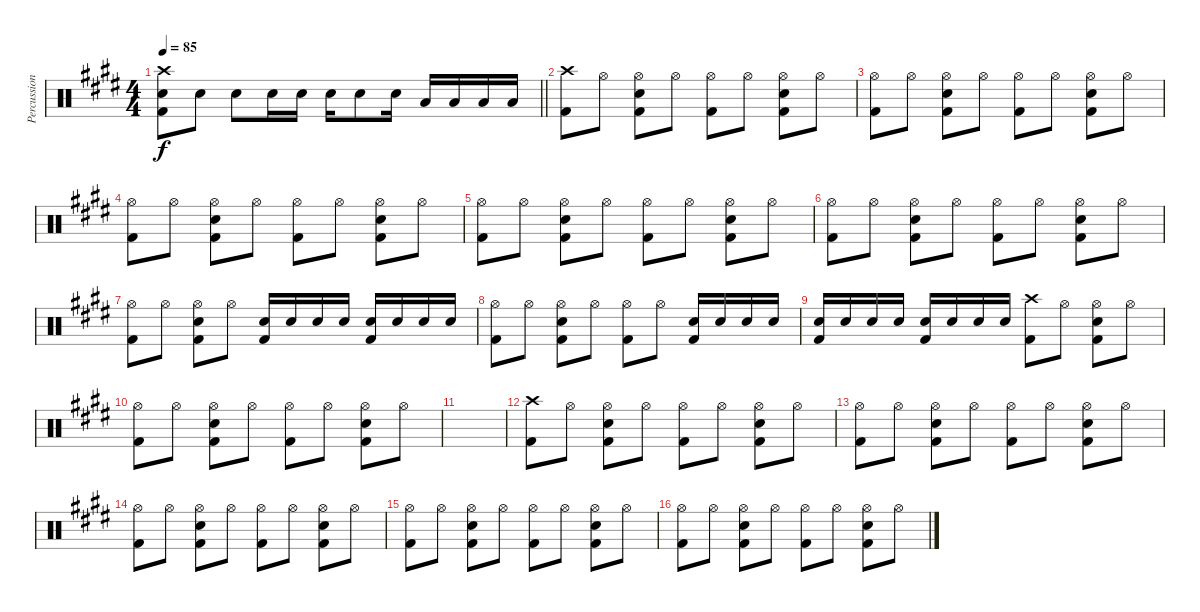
\track ("Percussion" "Percussion") {instrument percussion}
\staff {score}
\articulation defaults
\ts (4 4)
\tempo 85
\clef neutral
\barLineRight lightlight
\ks e
("Crash high (hit)" "Snare (hit) 2" "Kick (hit) 2").8{dy f} "Snare (hit) 2".8 "Snare (hit) 2".8 "Snare (hit) 2".16 "Snare (hit) 2".16 "Snare (hit) 2".16 "Snare (hit) 2".8 "Snare (hit) 2".16 "Low Floor Tom (hit)".16 "Low Floor Tom (hit)".16 "Low Floor Tom (hit)".16 "Low Floor Tom (hit)".16 |
("Crash high (hit)" "Kick (hit) 2").8 "Hi-Hat (open)".8 ("Hi-Hat (open)" "Kick (hit) 2" "Snare (hit) 2").8 "Hi-Hat (open)".8 ("Hi-Hat (open)" "Kick (hit) 2").8 "Hi-Hat (open)".8 ("Hi-Hat (open)" "Kick (hit) 2" "Snare (hit) 2").8 "Hi-Hat (open)".8 |
("Hi-Hat (open)" "Kick (hit) 2").8 "Hi-Hat (open)".8 ("Hi-Hat (open)" "Kick (hit) 2" "Snare (hit) 2").8 "Hi-Hat (open)".8 ("Hi-Hat (open)" "Kick (hit) 2").8 "Hi-Hat (open)".8 ("Hi-Hat (open)" "Kick (hit) 2" "Snare (hit) 2").8 "Hi-Hat (open)".8 |
("Hi-Hat (open)" "Kick (hit) 2").8 "Hi-Hat (open)".8 ("Hi-Hat (open)" "Kick (hit) 2" "Snare (hit) 2").8 "Hi-Hat (open)".8 ("Hi-Hat (open)" "Kick (hit) 2").8 "Hi-Hat (open)".8 ("Hi-Hat (open)" "Kick (hit) 2" "Snare (hit) 2").8 "Hi-Hat (open)".8 |
("Hi-Hat (open)" "Kick (hit) 2").8 "Hi-Hat (open)".8 ("Hi-Hat (open)" "Kick (hit) 2" "Snare (hit) 2").8 "Hi-Hat (open)".8 ("Hi-Hat (open)" "Kick (hit) 2").8 "Hi-Hat (open)".8 ("Hi-Hat (open)" "Kick (hit) 2" "Snare (hit) 2").8 "Hi-Hat (open)".8 |
("Hi-Hat (open)" "Kick (hit) 2").8 "Hi-Hat (open)".8 ("Hi-Hat (open)" "Kick (hit) 2" "Snare (hit) 2").8 "Hi-Hat (open)".8 ("Hi-Hat (open)" "Kick (hit) 2").8 "Hi-Hat (open)".8 ("Hi-Hat (open)" "Kick (hit) 2" "Snare (hit) 2").8 "Hi-Hat (open)".8 |
("Hi-Hat (open)" "Kick (hit) 2").8 "Hi-Hat (open)".8 ("Hi-Hat (open)" "Snare (hit) 2" "Kick (hit) 2").8 "Hi-Hat (open)".8 ("Snare (hit) 2" "Kick (hit) 2").16 "Snare (hit) 2".16 "Snare (hit) 2".16 "Snare (hit) 2".16 ("Snare (hit) 2" "Kick (hit) 2").16 "Snare (hit) 2".16 "Snare (hit) 2".16 "Snare (hit) 2".16 |
("Hi-Hat (open)" "Kick (hit) 2").8 "Hi-Hat (open)".8 ("Hi-Hat (open)" "Kick (hit) 2" "Snare (hit) 2").8 "Hi-Hat (open)".8 ("Hi-Hat (open)" "Kick (hit) 2").8 "Hi-Hat (open)".8 ("Snare (hit) 2" "Kick (hit) 2").16 "Snare (hit) 2".16 "Snare (hit) 2".16 "Snare (hit) 2".16 |
("Snare (hit) 2" "Kick (hit) 2").16{volume 0} "Snare (hit) 2".16 "Snare (hit) 2".16 "Snare (hit) 2".16 ("Snare (hit) 2" "Kick (hit) 2").16 "Snare (hit) 2".16 "Snare (hit) 2".16 "Snare (hit) 2".16 ("Crash high (hit)" "Kick (hit) 2").8 "Hi-Hat (open)".8 ("Hi-Hat (open)" "Kick (hit) 2" "Snare (hit) 2").8 "Hi-Hat (open)".8 |
("Hi-Hat (open)" "Kick (hit) 2").8 "Hi-Hat (open)".8 ("Hi-Hat (open)" "Kick (hit) 2" "Snare (hit) 2").8 "Hi-Hat (open)".8 ("Hi-Hat (open)" "Kick (hit) 2").8 "Hi-Hat (open)".8 ("Hi-Hat (open)" "Kick (hit) 2" "Snare (hit) 2").8 "Hi-Hat (open)".8 |
|
("Crash high (hit)" "Kick (hit) 2").8{volume 14} "Hi-Hat (open)".8 ("Hi-Hat (open)" "Kick (hit) 2" "Snare (hit) 2").8 "Hi-Hat (open)".8 ("Hi-Hat (open)" "Kick (hit) 2").8 "Hi-Hat (open)".8 ("Hi-Hat (open)" "Kick (hit) 2" "Snare (hit) 2").8 "Hi-Hat (open)".8 |
("Hi-Hat (open)" "Kick (hit) 2").8 "Hi-Hat (open)".8 ("Hi-Hat (open)" "Kick (hit) 2" "Snare (hit) 2").8 "Hi-Hat (open)".8 ("Hi-Hat (open)" "Kick (hit) 2").8 "Hi-Hat (open)".8 ("Hi-Hat (open)" "Kick (hit) 2" "Snare (hit) 2").8 "Hi-Hat (open)".8 |
("Hi-Hat (open)" "Kick (hit) 2").8 "Hi-Hat (open)".8 ("Hi-Hat (open)" "Kick (hit) 2" "Snare (hit) 2").8 "Hi-Hat (open)".8 ("Hi-Hat (open)" "Kick (hit) 2").8 "Hi-Hat (open)".8 ("Hi-Hat (open)" "Kick (hit) 2" "Snare (hit) 2").8 "Hi-Hat (open)".8 |
("Hi-Hat (open)" "Kick (hit) 2").8 "Hi-Hat (open)".8 ("Hi-Hat (open)" "Kick (hit) 2" "Snare (hit) 2").8 "Hi-Hat (open)".8 ("Hi-Hat (open)" "Kick (hit) 2").8 "Hi-Hat (open)".8 ("Hi-Hat (open)" "Kick (hit) 2" "Snare (hit) 2").8 "Hi-Hat (open)".8 |
("Hi-Hat (open)" "Kick (hit) 2").8 "Hi-Hat (open)".8 ("Hi-Hat (open)" "Kick (hit) 2" "Snare (hit) 2").8 "Hi-Hat (open)".8 ("Hi-Hat (open)" "Kick (hit) 2").8 "Hi-Hat (open)".8 ("Hi-Hat (open)" "Kick (hit) 2" "Snare (hit) 2").8 "Hi-Hat (open)".8
